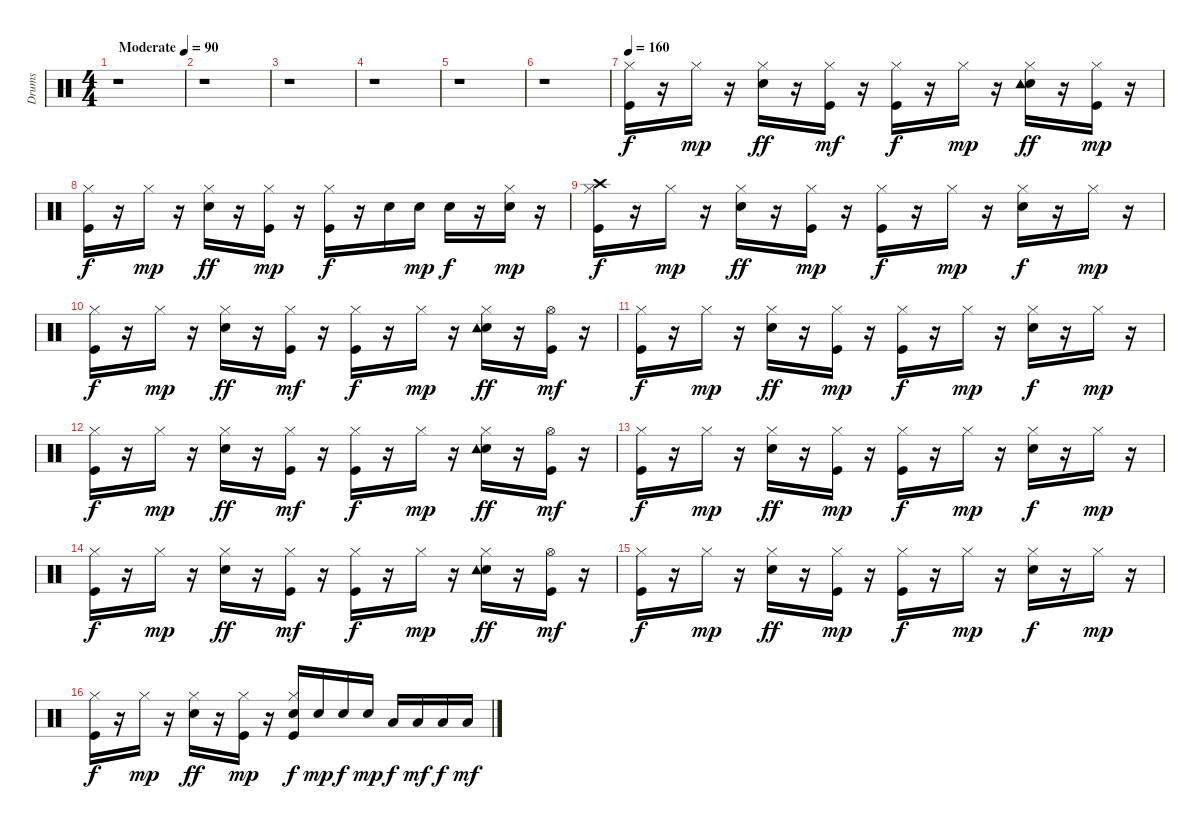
\track ("Drums   " "Drums   ") {instrument percussion}
\staff {score}
\articulation defaults
\ts (4 4)
\tempo (90 "Moderate")
\clef neutral
\ks c
r.1{dy f} |
r.1 |
r.1 |
r.1 |
r.1 |
r.1 |
\tempo 160
("Kick (hit)" "Hi-Hat (closed)").16 r.16 "Hi-Hat (closed)".16{dy mp} r.16 ("Snare (hit) 2" "Hi-Hat (closed)").16{dy ff} r.16 ("Kick (hit)" "Hi-Hat (closed)").16{dy mf} r.16 ("Kick (hit)" "Hi-Hat (closed)").16{dy f} r.16 "Hi-Hat (closed)".16{dy mp} r.16 ("Snare (hit) 2" "Hi-Hat (closed)" "Tambourine (hit)").16{dy ff} r.16 ("Kick (hit)" "Hi-Hat (closed)").16{dy mp} r.16 |
("Kick (hit)" "Hi-Hat (closed)").16{dy f} r.16 "Hi-Hat (closed)".16{dy mp} r.16 ("Snare (hit) 2" "Hi-Hat (closed)").16{dy ff} r.16 ("Kick (hit)" "Hi-Hat (closed)").16{dy mp} r.16 ("Kick (hit)" "Hi-Hat (closed)").16{dy f} r.16 "Snare (hit) 2".16 "Snare (hit) 2".16{dy mp} "Snare (hit) 2".16{dy f} r.16 ("Snare (hit) 2" "Hi-Hat (closed)").16{dy mp} r.16 |
("Kick (hit)" "Hi-Hat (closed)" "Crash high (hit)").16{dy f} r.16 "Hi-Hat (closed)".16{dy mp} r.16 ("Snare (hit) 2" "Hi-Hat (closed)").16{dy ff} r.16 ("Kick (hit)" "Hi-Hat (closed)").16{dy mp} r.16 ("Kick (hit)" "Hi-Hat (closed)").16{dy f} r.16 "Hi-Hat (closed)".16{dy mp} r.16 ("Snare (hit) 2" "Hi-Hat (closed)").16{dy f} r.16 "Hi-Hat (closed)".16{dy mp} r.16 |
("Kick (hit)" "Hi-Hat (closed)").16{dy f} r.16 "Hi-Hat (closed)".16{dy mp} r.16 ("Snare (hit) 2" "Hi-Hat (closed)").16{dy ff} r.16 ("Kick (hit)" "Hi-Hat (closed)").16{dy mf} r.16 ("Kick (hit)" "Hi-Hat (closed)").16{dy f} r.16 "Hi-Hat (closed)".16{dy mp} r.16 ("Snare (hit) 2" "Hi-Hat (closed)" "Tambourine (hit)").16{dy ff} r.16 ("Kick (hit)" "Hi-Hat (open)").16{dy mf} r.16 |
("Kick (hit)" "Hi-Hat (closed)").16{dy f} r.16 "Hi-Hat (closed)".16{dy mp} r.16 ("Snare (hit) 2" "Hi-Hat (closed)").16{dy ff} r.16 ("Kick (hit)" "Hi-Hat (closed)").16{dy mp} r.16 ("Kick (hit)" "Hi-Hat (closed)").16{dy f} r.16 "Hi-Hat (closed)".16{dy mp} r.16 ("Snare (hit) 2" "Hi-Hat (closed)").16{dy f} r.16 "Hi-Hat (closed)".16{dy mp} r.16 |
("Kick (hit)" "Hi-Hat (closed)").16{dy f} r.16 "Hi-Hat (closed)".16{dy mp} r.16 ("Snare (hit) 2" "Hi-Hat (closed)").16{dy ff} r.16 ("Kick (hit)" "Hi-Hat (closed)").16{dy mf} r.16 ("Kick (hit)" "Hi-Hat (closed)").16{dy f} r.16 "Hi-Hat (closed)".16{dy mp} r.16 ("Snare (hit) 2" "Hi-Hat (closed)" "Tambourine (hit)").16{dy ff} r.16 ("Kick (hit)" "Hi-Hat (open)").16{dy mf} r.16 |
("Kick (hit)" "Hi-Hat (closed)").16{dy f} r.16 "Hi-Hat (closed)".16{dy mp} r.16 ("Snare (hit) 2" "Hi-Hat (closed)").16{dy ff} r.16 ("Kick (hit)" "Hi-Hat (closed)").16{dy mp} r.16 ("Kick (hit)" "Hi-Hat (closed)").16{dy f} r.16 "Hi-Hat (closed)".16{dy mp} r.16 ("Snare (hit) 2" "Hi-Hat (closed)").16{dy f} r.16 "Hi-Hat (closed)".16{dy mp} r.16 |
("Kick (hit)" "Hi-Hat (closed)").16{dy f} r.16 "Hi-Hat (closed)".16{dy mp} r.16 ("Snare (hit) 2" "Hi-Hat (closed)").16{dy ff} r.16 ("Kick (hit)" "Hi-Hat (closed)").16{dy mf} r.16 ("Kick (hit)" "Hi-Hat (closed)").16{dy f} r.16 "Hi-Hat (closed)".16{dy mp} r.16 ("Snare (hit) 2" "Hi-Hat (closed)" "Tambourine (hit)").16{dy ff} r.16 ("Kick (hit)" "Hi-Hat (open)").16{dy mf} r.16 |
("Kick (hit)" "Hi-Hat (closed)").16{dy f} r.16 "Hi-Hat (closed)".16{dy mp} r.16 ("Snare (hit) 2" "Hi-Hat (closed)").16{dy ff} r.16 ("Kick (hit)" "Hi-Hat (closed)").16{dy mp} r.16 ("Kick (hit)" "Hi-Hat (closed)").16{dy f} r.16 "Hi-Hat (closed)".16{dy mp} r.16 ("Snare (hit) 2" "Hi-Hat (closed)").16{dy f} r.16 "Hi-Hat (closed)".16{dy mp} r.16 |
("Kick (hit)" "Hi-Hat (closed)").16{dy f} r.16 "Hi-Hat (closed)".16{dy mp} r.16 ("Snare (hit) 2" "Hi-Hat (closed)").16{dy ff} r.16 ("Kick (hit)" "Hi-Hat (closed)").16{dy mp} r.16 ("Kick (hit)" "Snare (hit) 2" "Hi-Hat (closed)").16{dy f} "Snare (hit) 2".16{dy mp} "Snare (hit) 2".16{dy f} "Snare (hit) 2".16{dy mp} "Low Tom (hit)".16{dy f} "Low Tom (hit)".16{dy mf} "Low Tom (hit)".16{dy f} "Low Tom (hit)".16{dy mf}
